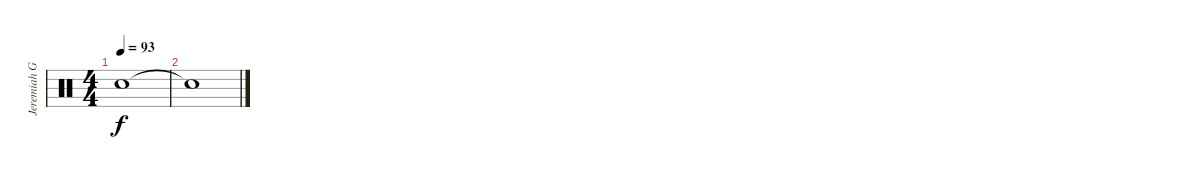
\track ("Jeremiah Green" "Jeremiah G") {instrument percussion}
\staff {score}
\articulation defaults
\ts (4 4)
\tempo 93
\clef neutral
\ks c "Snare (hit)"{t}.1{dy f}
|
"Snare (hit)"{t}.1
